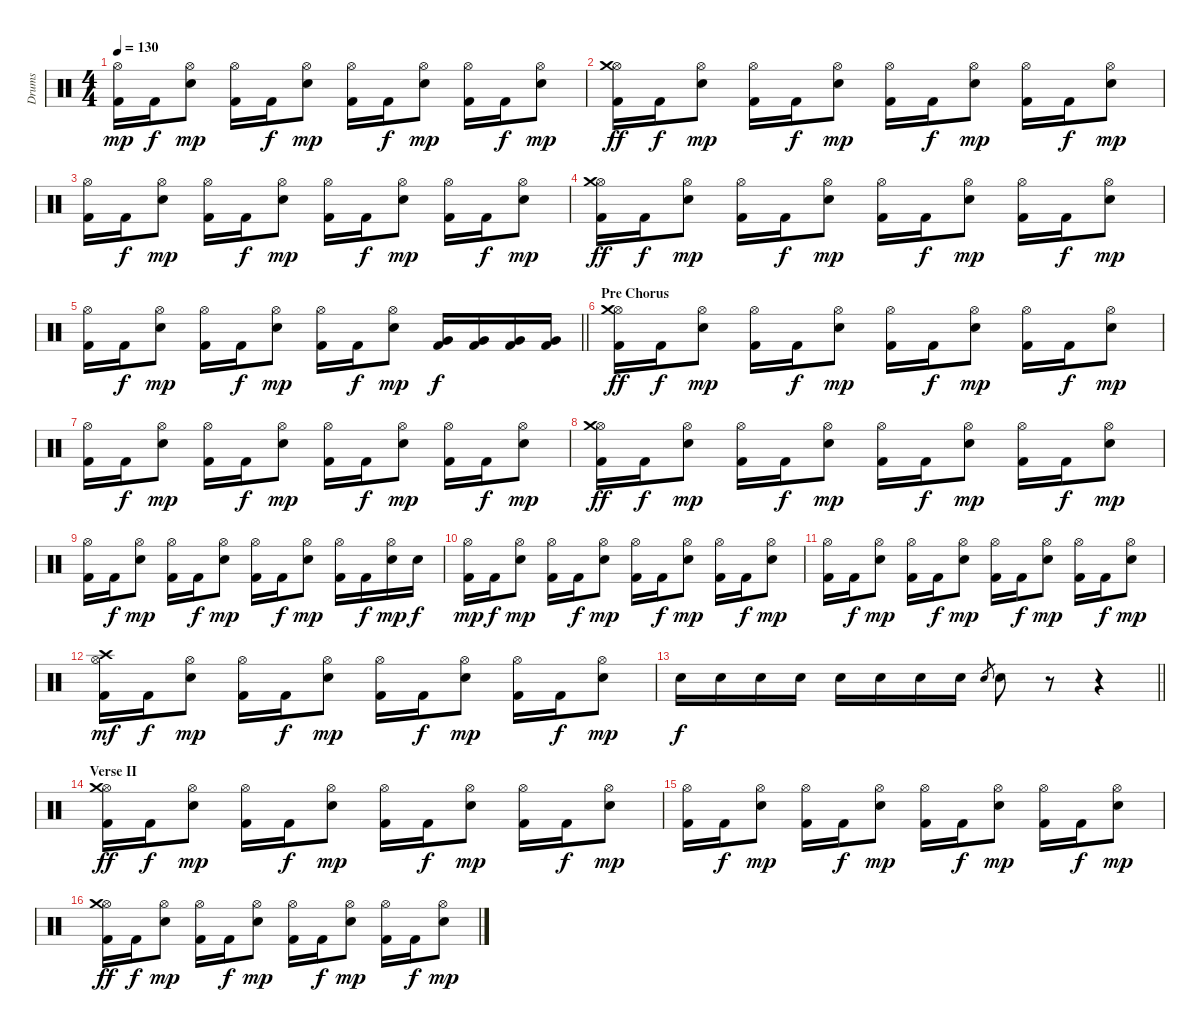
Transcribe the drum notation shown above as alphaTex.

\track ("Drums" "Drums") {instrument percussion}
\staff {score}
\articulation defaults
\ts (4 4)
\tempo 130
\clef neutral
\ks c
("Kick (hit) 2" "Hi-Hat (open)").16{dy mp} "Kick (hit) 2".16{dy f} ("Hi-Hat (open)" "Snare (hit) 2").8{dy mp} ("Kick (hit) 2" "Hi-Hat (open)").16 "Kick (hit) 2".16{dy f} ("Hi-Hat (open)" "Snare (hit) 2").8{dy mp} ("Kick (hit) 2" "Hi-Hat (open)").16 "Kick (hit) 2".16{dy f} ("Hi-Hat (open)" "Snare (hit) 2").8{dy mp} ("Kick (hit) 2" "Hi-Hat (open)").16 "Kick (hit) 2".16{dy f} ("Hi-Hat (open)" "Snare (hit) 2").8{dy mp} |
("Kick (hit) 2" "Hi-Hat (open)" "Crash medium (hit)").16{dy ff} "Kick (hit) 2".16{dy f} ("Hi-Hat (open)" "Snare (hit) 2").8{dy mp} ("Kick (hit) 2" "Hi-Hat (open)").16 "Kick (hit) 2".16{dy f} ("Hi-Hat (open)" "Snare (hit) 2").8{dy mp} ("Kick (hit) 2" "Hi-Hat (open)").16 "Kick (hit) 2".16{dy f} ("Hi-Hat (open)" "Snare (hit) 2").8{dy mp} ("Kick (hit) 2" "Hi-Hat (open)").16 "Kick (hit) 2".16{dy f} ("Hi-Hat (open)" "Snare (hit) 2").8{dy mp} |
("Kick (hit) 2" "Hi-Hat (open)").16 "Kick (hit) 2".16{dy f} ("Hi-Hat (open)" "Snare (hit) 2").8{dy mp} ("Kick (hit) 2" "Hi-Hat (open)").16 "Kick (hit) 2".16{dy f} ("Hi-Hat (open)" "Snare (hit) 2").8{dy mp} ("Kick (hit) 2" "Hi-Hat (open)").16 "Kick (hit) 2".16{dy f} ("Hi-Hat (open)" "Snare (hit) 2").8{dy mp} ("Kick (hit) 2" "Hi-Hat (open)").16 "Kick (hit) 2".16{dy f} ("Hi-Hat (open)" "Snare (hit) 2").8{dy mp} |
("Kick (hit) 2" "Hi-Hat (open)" "Crash medium (hit)").16{dy ff} "Kick (hit) 2".16{dy f} ("Hi-Hat (open)" "Snare (hit) 2").8{dy mp} ("Kick (hit) 2" "Hi-Hat (open)").16 "Kick (hit) 2".16{dy f} ("Hi-Hat (open)" "Snare (hit) 2").8{dy mp} ("Kick (hit) 2" "Hi-Hat (open)").16 "Kick (hit) 2".16{dy f} ("Hi-Hat (open)" "Snare (hit) 2").8{dy mp} ("Kick (hit) 2" "Hi-Hat (open)").16 "Kick (hit) 2".16{dy f} ("Hi-Hat (open)" "Snare (hit) 2").8{dy mp} |
\barLineRight lightlight
("Kick (hit) 2" "Hi-Hat (open)").16 "Kick (hit) 2".16{dy f} ("Hi-Hat (open)" "Snare (hit) 2").8{dy mp} ("Kick (hit) 2" "Hi-Hat (open)").16 "Kick (hit) 2".16{dy f} ("Hi-Hat (open)" "Snare (hit) 2").8{dy mp} ("Kick (hit) 2" "Hi-Hat (open)").16 "Kick (hit) 2".16{dy f} ("Hi-Hat (open)" "Snare (hit) 2").8{dy mp} ("Kick (hit) 2" "Very Low Tom (hit)").16{dy f} ("Kick (hit) 2" "Very Low Tom (hit)").16 ("Kick (hit) 2" "Very Low Tom (hit)").16 ("Kick (hit) 2" "Very Low Tom (hit)").16 |
\section ("" "Pre Chorus")
("Kick (hit) 2" "Hi-Hat (open)" "Crash medium (hit)").16{dy ff} "Kick (hit) 2".16{dy f} ("Hi-Hat (open)" "Snare (hit) 2").8{dy mp} ("Kick (hit) 2" "Hi-Hat (open)").16 "Kick (hit) 2".16{dy f} ("Hi-Hat (open)" "Snare (hit) 2").8{dy mp} ("Kick (hit) 2" "Hi-Hat (open)").16 "Kick (hit) 2".16{dy f} ("Hi-Hat (open)" "Snare (hit) 2").8{dy mp} ("Kick (hit) 2" "Hi-Hat (open)").16 "Kick (hit) 2".16{dy f} ("Hi-Hat (open)" "Snare (hit) 2").8{dy mp} |
("Kick (hit) 2" "Hi-Hat (open)").16 "Kick (hit) 2".16{dy f} ("Hi-Hat (open)" "Snare (hit) 2").8{dy mp} ("Kick (hit) 2" "Hi-Hat (open)").16 "Kick (hit) 2".16{dy f} ("Hi-Hat (open)" "Snare (hit) 2").8{dy mp} ("Kick (hit) 2" "Hi-Hat (open)").16 "Kick (hit) 2".16{dy f} ("Hi-Hat (open)" "Snare (hit) 2").8{dy mp} ("Kick (hit) 2" "Hi-Hat (open)").16 "Kick (hit) 2".16{dy f} ("Hi-Hat (open)" "Snare (hit) 2").8{dy mp} |
("Kick (hit) 2" "Hi-Hat (open)" "Crash medium (hit)").16{dy ff} "Kick (hit) 2".16{dy f} ("Hi-Hat (open)" "Snare (hit) 2").8{dy mp} ("Kick (hit) 2" "Hi-Hat (open)").16 "Kick (hit) 2".16{dy f} ("Hi-Hat (open)" "Snare (hit) 2").8{dy mp} ("Kick (hit) 2" "Hi-Hat (open)").16 "Kick (hit) 2".16{dy f} ("Hi-Hat (open)" "Snare (hit) 2").8{dy mp} ("Kick (hit) 2" "Hi-Hat (open)").16 "Kick (hit) 2".16{dy f} ("Hi-Hat (open)" "Snare (hit) 2").8{dy mp} |
("Kick (hit) 2" "Hi-Hat (open)").16 "Kick (hit) 2".16{dy f} ("Hi-Hat (open)" "Snare (hit) 2").8{dy mp} ("Kick (hit) 2" "Hi-Hat (open)").16 "Kick (hit) 2".16{dy f} ("Hi-Hat (open)" "Snare (hit) 2").8{dy mp} ("Kick (hit) 2" "Hi-Hat (open)").16 "Kick (hit) 2".16{dy f} ("Hi-Hat (open)" "Snare (hit) 2").8{dy mp} ("Kick (hit) 2" "Hi-Hat (open)").16 "Kick (hit) 2".16{dy f} ("Hi-Hat (open)" "Snare (hit) 2").16{dy mp} "Snare (hit) 2".16{dy f} |
("Kick (hit) 2" "Hi-Hat (open)").16{dy mp} "Kick (hit) 2".16{dy f} ("Hi-Hat (open)" "Snare (hit) 2").8{dy mp} ("Kick (hit) 2" "Hi-Hat (open)").16 "Kick (hit) 2".16{dy f} ("Hi-Hat (open)" "Snare (hit) 2").8{dy mp} ("Kick (hit) 2" "Hi-Hat (open)").16 "Kick (hit) 2".16{dy f} ("Hi-Hat (open)" "Snare (hit) 2").8{dy mp} ("Kick (hit) 2" "Hi-Hat (open)").16 "Kick (hit) 2".16{dy f} ("Hi-Hat (open)" "Snare (hit) 2").8{dy mp} |
("Kick (hit) 2" "Hi-Hat (open)").16 "Kick (hit) 2".16{dy f} ("Hi-Hat (open)" "Snare (hit) 2").8{dy mp} ("Kick (hit) 2" "Hi-Hat (open)").16 "Kick (hit) 2".16{dy f} ("Hi-Hat (open)" "Snare (hit) 2").8{dy mp} ("Kick (hit) 2" "Hi-Hat (open)").16 "Kick (hit) 2".16{dy f} ("Hi-Hat (open)" "Snare (hit) 2").8{dy mp} ("Kick (hit) 2" "Hi-Hat (open)").16 "Kick (hit) 2".16{dy f} ("Hi-Hat (open)" "Snare (hit) 2").8{dy mp} |
("Kick (hit) 2" "Hi-Hat (open)" "Crash high (hit)").16{dy mf} "Kick (hit) 2".16{dy f} ("Hi-Hat (open)" "Snare (hit) 2").8{dy mp} ("Kick (hit) 2" "Hi-Hat (open)").16 "Kick (hit) 2".16{dy f} ("Hi-Hat (open)" "Snare (hit) 2").8{dy mp} ("Kick (hit) 2" "Hi-Hat (open)").16 "Kick (hit) 2".16{dy f} ("Hi-Hat (open)" "Snare (hit) 2").8{dy mp} ("Kick (hit) 2" "Hi-Hat (open)").16 "Kick (hit) 2".16{dy f} ("Hi-Hat (open)" "Snare (hit) 2").8{dy mp} |
\barLineRight lightlight "Snare (hit) 2".16{dy f} "Snare (hit) 2".16 "Snare (hit) 2".16 "Snare (hit) 2".16 "Snare (hit) 2".16 "Snare (hit) 2".16 "Snare (hit) 2".16 "Snare (hit) 2".16 "Snare (hit) 2".8{gr} "Snare (hit) 2".8
r.8 r.4 |
\section ("" "Verse II")
("Kick (hit) 2" "Hi-Hat (open)" "Crash medium (hit)").16{dy ff} "Kick (hit) 2".16{dy f} ("Hi-Hat (open)" "Snare (hit) 2").8{dy mp} ("Kick (hit) 2" "Hi-Hat (open)").16 "Kick (hit) 2".16{dy f} ("Hi-Hat (open)" "Snare (hit) 2").8{dy mp} ("Kick (hit) 2" "Hi-Hat (open)").16 "Kick (hit) 2".16{dy f} ("Hi-Hat (open)" "Snare (hit) 2").8{dy mp} ("Kick (hit) 2" "Hi-Hat (open)").16 "Kick (hit) 2".16{dy f} ("Hi-Hat (open)" "Snare (hit) 2").8{dy mp} |
("Kick (hit) 2" "Hi-Hat (open)").16 "Kick (hit) 2".16{dy f} ("Hi-Hat (open)" "Snare (hit) 2").8{dy mp} ("Kick (hit) 2" "Hi-Hat (open)").16 "Kick (hit) 2".16{dy f} ("Hi-Hat (open)" "Snare (hit) 2").8{dy mp} ("Kick (hit) 2" "Hi-Hat (open)").16 "Kick (hit) 2".16{dy f} ("Hi-Hat (open)" "Snare (hit) 2").8{dy mp} ("Kick (hit) 2" "Hi-Hat (open)").16 "Kick (hit) 2".16{dy f} ("Hi-Hat (open)" "Snare (hit) 2").8{dy mp} |
("Kick (hit) 2" "Hi-Hat (open)" "Crash medium (hit)").16{dy ff} "Kick (hit) 2".16{dy f} ("Hi-Hat (open)" "Snare (hit) 2").8{dy mp} ("Kick (hit) 2" "Hi-Hat (open)").16 "Kick (hit) 2".16{dy f} ("Hi-Hat (open)" "Snare (hit) 2").8{dy mp} ("Kick (hit) 2" "Hi-Hat (open)").16 "Kick (hit) 2".16{dy f} ("Hi-Hat (open)" "Snare (hit) 2").8{dy mp} ("Kick (hit) 2" "Hi-Hat (open)").16 "Kick (hit) 2".16{dy f} ("Hi-Hat (open)" "Snare (hit) 2").8{dy mp}
